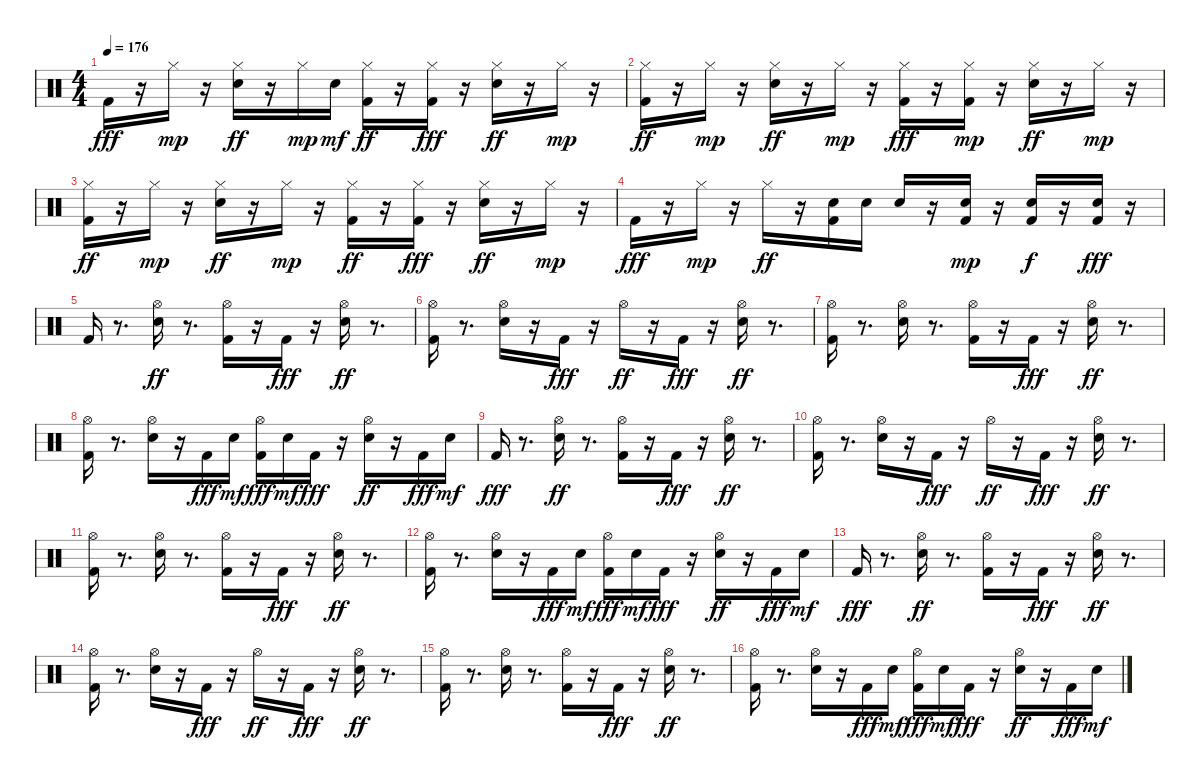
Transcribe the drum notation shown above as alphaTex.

\track "" {instrument percussion}
\staff {score}
\articulation defaults
\ts (4 4)
\tempo 176
\clef neutral
\ks c "Kick (hit) 2".16{dy fff}
r.16 "Hi-Hat (closed)".16{dy mp} r.16 ("Electric Snare (hit)" "Hi-Hat (closed)").16{dy ff} r.16 "Hi-Hat (closed)".16{dy mp} "Electric Snare (hit)".16{dy mf} ("Kick (hit) 2" "Hi-Hat (closed)").16{dy ff} r.16 ("Hi-Hat (closed)" "Kick (hit) 2").16{dy fff} r.16 ("Electric Snare (hit)" "Hi-Hat (closed)").16{dy ff} r.16 "Hi-Hat (closed)".16{dy mp} r.16 |
("Kick (hit) 2" "Hi-Hat (closed)").16{dy ff} r.16 "Hi-Hat (closed)".16{dy mp} r.16 ("Electric Snare (hit)" "Hi-Hat (closed)").16{dy ff} r.16 "Hi-Hat (closed)".16{dy mp} r.16 ("Hi-Hat (closed)" "Kick (hit) 2").16{dy fff} r.16 ("Kick (hit) 2" "Hi-Hat (closed)").16{dy mp} r.16 ("Electric Snare (hit)" "Hi-Hat (closed)").16{dy ff} r.16 "Hi-Hat (closed)".16{dy mp} r.16 |
("Kick (hit) 2" "Hi-Hat (closed)").16{dy ff} r.16 "Hi-Hat (closed)".16{dy mp} r.16 ("Electric Snare (hit)" "Hi-Hat (closed)").16{dy ff} r.16 "Hi-Hat (closed)".16{dy mp} r.16 ("Kick (hit) 2" "Hi-Hat (closed)").16{dy ff} r.16 ("Hi-Hat (closed)" "Kick (hit) 2").16{dy fff} r.16 ("Electric Snare (hit)" "Hi-Hat (closed)").16{dy ff} r.16 "Hi-Hat (closed)".16{dy mp} r.16 |
"Kick (hit) 2".16{dy fff} r.16 "Hi-Hat (closed)".16{dy mp} r.16 "Hi-Hat (closed)".16{dy ff} r.16 ("Kick (hit) 2" "Electric Snare (hit)").16 "Electric Snare (hit)".16 "Electric Snare (hit)".16 r.16 ("Kick (hit) 2" "Electric Snare (hit)").16{dy mp} r.16 ("Kick (hit) 2" "Electric Snare (hit)").16{dy f} r.16 ("Kick (hit) 2" "Electric Snare (hit)").16{dy fff} r.16 |
"Kick (hit) 2".16 r.8{d} ("Electric Snare (hit)" "Hi-Hat (open)").16{dy ff} r.8{d} ("Kick (hit) 2" "Hi-Hat (open)").16 r.16 "Kick (hit) 2".16{dy fff} r.16 ("Electric Snare (hit)" "Hi-Hat (open)").16{dy ff} r.8{d} |
("Kick (hit) 2" "Hi-Hat (open)").16 r.8{d} ("Electric Snare (hit)" "Hi-Hat (open)").16 r.16 "Kick (hit) 2".16{dy fff} r.16 "Hi-Hat (open)".16{dy ff} r.16 "Kick (hit) 2".16{dy fff} r.16 ("Electric Snare (hit)" "Hi-Hat (open)").16{dy ff} r.8{d} |
("Kick (hit) 2" "Hi-Hat (open)").16 r.8{d} ("Electric Snare (hit)" "Hi-Hat (open)").16 r.8{d} ("Kick (hit) 2" "Hi-Hat (open)").16 r.16 "Kick (hit) 2".16{dy fff} r.16 ("Electric Snare (hit)" "Hi-Hat (open)").16{dy ff} r.8{d} |
("Kick (hit) 2" "Hi-Hat (open)").16 r.8{d} ("Electric Snare (hit)" "Hi-Hat (open)").16 r.16 "Kick (hit) 2".16{dy fff} "Electric Snare (hit)".16{dy mf} ("Hi-Hat (open)" "Kick (hit) 2").16{dy fff} "Electric Snare (hit)".16{dy mf} "Kick (hit) 2".16{dy fff} r.16 ("Electric Snare (hit)" "Hi-Hat (open)").16{dy ff} r.16 "Kick (hit) 2".16{dy fff} "Electric Snare (hit)".16{dy mf} |
"Kick (hit) 2".16{dy fff} r.8{d} ("Electric Snare (hit)" "Hi-Hat (open)").16{dy ff} r.8{d} ("Kick (hit) 2" "Hi-Hat (open)").16 r.16 "Kick (hit) 2".16{dy fff} r.16 ("Electric Snare (hit)" "Hi-Hat (open)").16{dy ff} r.8{d} |
("Kick (hit) 2" "Hi-Hat (open)").16 r.8{d} ("Electric Snare (hit)" "Hi-Hat (open)").16 r.16 "Kick (hit) 2".16{dy fff} r.16 "Hi-Hat (open)".16{dy ff} r.16 "Kick (hit) 2".16{dy fff} r.16 ("Electric Snare (hit)" "Hi-Hat (open)").16{dy ff} r.8{d} |
("Kick (hit) 2" "Hi-Hat (open)").16 r.8{d} ("Electric Snare (hit)" "Hi-Hat (open)").16 r.8{d} ("Kick (hit) 2" "Hi-Hat (open)").16 r.16 "Kick (hit) 2".16{dy fff} r.16 ("Electric Snare (hit)" "Hi-Hat (open)").16{dy ff} r.8{d} |
("Kick (hit) 2" "Hi-Hat (open)").16 r.8{d} ("Electric Snare (hit)" "Hi-Hat (open)").16 r.16 "Kick (hit) 2".16{dy fff} "Electric Snare (hit)".16{dy mf} ("Hi-Hat (open)" "Kick (hit) 2").16{dy fff} "Electric Snare (hit)".16{dy mf} "Kick (hit) 2".16{dy fff} r.16 ("Electric Snare (hit)" "Hi-Hat (open)").16{dy ff} r.16 "Kick (hit) 2".16{dy fff} "Electric Snare (hit)".16{dy mf} |
"Kick (hit) 2".16{dy fff} r.8{d} ("Electric Snare (hit)" "Hi-Hat (open)").16{dy ff} r.8{d} ("Kick (hit) 2" "Hi-Hat (open)").16 r.16 "Kick (hit) 2".16{dy fff} r.16 ("Electric Snare (hit)" "Hi-Hat (open)").16{dy ff} r.8{d} |
("Kick (hit) 2" "Hi-Hat (open)").16 r.8{d} ("Electric Snare (hit)" "Hi-Hat (open)").16 r.16 "Kick (hit) 2".16{dy fff} r.16 "Hi-Hat (open)".16{dy ff} r.16 "Kick (hit) 2".16{dy fff} r.16 ("Electric Snare (hit)" "Hi-Hat (open)").16{dy ff} r.8{d} |
("Kick (hit) 2" "Hi-Hat (open)").16 r.8{d} ("Electric Snare (hit)" "Hi-Hat (open)").16 r.8{d} ("Kick (hit) 2" "Hi-Hat (open)").16 r.16 "Kick (hit) 2".16{dy fff} r.16 ("Electric Snare (hit)" "Hi-Hat (open)").16{dy ff} r.8{d} |
("Kick (hit) 2" "Hi-Hat (open)").16 r.8{d} ("Electric Snare (hit)" "Hi-Hat (open)").16 r.16 "Kick (hit) 2".16{dy fff} "Electric Snare (hit)".16{dy mf} ("Hi-Hat (open)" "Kick (hit) 2").16{dy fff} "Electric Snare (hit)".16{dy mf} "Kick (hit) 2".16{dy fff} r.16 ("Electric Snare (hit)" "Hi-Hat (open)").16{dy ff} r.16 "Kick (hit) 2".16{dy fff} "Electric Snare (hit)".16{dy mf}
